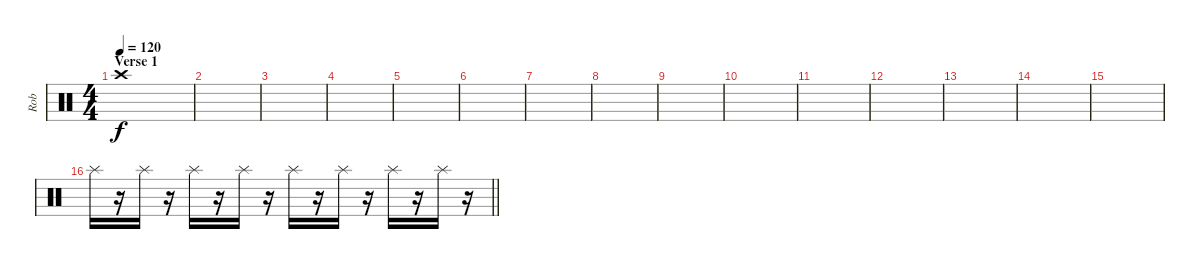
\track ("Rob" "Rob") {instrument percussion}
\staff {score}
\articulation defaults
\ts (4 4)
\section ("" "Verse 1")
\tempo 120
\clef neutral
\ks c "Crash high (hit)".1{dy f}
|
|
|
|
|
|
|
|
|
|
|
|
|
|
|
\barLineRight lightlight "Splash (hit)".16
r.16 "Splash (hit)".16 r.16 "Splash (hit)".16 r.16 "Splash (hit)".16 r.16 "Splash (hit)".16 r.16 "Splash (hit)".16 r.16 "Splash (hit)".16 r.16 "Splash (hit)".16 r.16
